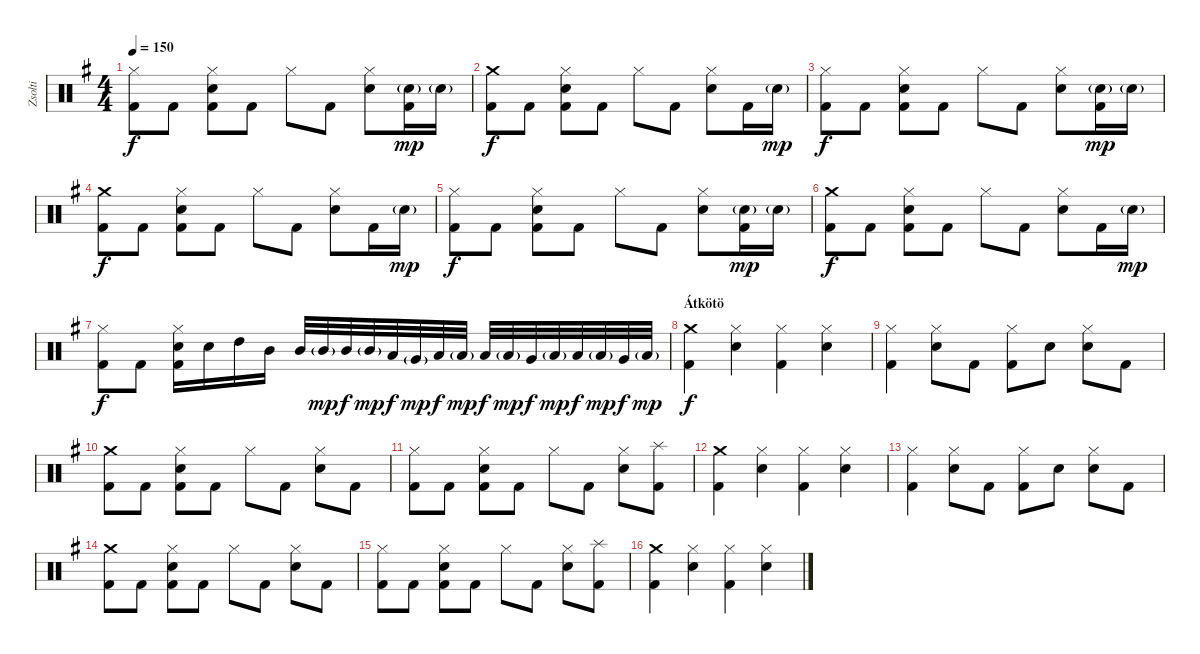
\track ("Zsolti" "Zsolti") {instrument percussion}
\staff {score}
\articulation defaults
\ts (4 4)
\tempo 150
\clef neutral
\ks eminor
("Hi-Hat (closed)" "Kick (hit) 2").8{dy f} "Kick (hit) 2".8 ("Hi-Hat (closed)" "Snare (hit) 2" "Kick (hit) 2").8 "Kick (hit) 2".8 "Hi-Hat (closed)".8 "Kick (hit) 2".8 ("Hi-Hat (closed)" "Snare (hit) 2").8 ("Snare (hit) 2"{g} "Kick (hit) 2").16{dy mp} "Snare (hit) 2"{g}.16 |
("Crash medium (hit)" "Kick (hit) 2").8{dy f} "Kick (hit) 2".8 ("Hi-Hat (closed)" "Snare (hit) 2" "Kick (hit) 2").8 "Kick (hit) 2".8 "Hi-Hat (closed)".8 "Kick (hit) 2".8 ("Hi-Hat (closed)" "Snare (hit) 2").8 "Kick (hit) 2".16 "Snare (hit) 2"{g}.16{dy mp} |
("Hi-Hat (closed)" "Kick (hit) 2").8{dy f} "Kick (hit) 2".8 ("Hi-Hat (closed)" "Snare (hit) 2" "Kick (hit) 2").8 "Kick (hit) 2".8 "Hi-Hat (closed)".8 "Kick (hit) 2".8 ("Hi-Hat (closed)" "Snare (hit) 2").8 ("Snare (hit) 2"{g} "Kick (hit) 2").16{dy mp} "Snare (hit) 2"{g}.16 |
("Crash medium (hit)" "Kick (hit) 2").8{dy f} "Kick (hit) 2".8 ("Hi-Hat (closed)" "Snare (hit) 2" "Kick (hit) 2").8 "Kick (hit) 2".8 "Hi-Hat (closed)".8 "Kick (hit) 2".8 ("Hi-Hat (closed)" "Snare (hit) 2").8 "Kick (hit) 2".16 "Snare (hit) 2"{g}.16{dy mp} |
("Hi-Hat (closed)" "Kick (hit) 2").8{dy f} "Kick (hit) 2".8 ("Hi-Hat (closed)" "Snare (hit) 2" "Kick (hit) 2").8 "Kick (hit) 2".8 "Hi-Hat (closed)".8 "Kick (hit) 2".8 ("Hi-Hat (closed)" "Snare (hit) 2").8 ("Snare (hit) 2"{g} "Kick (hit) 2").16{dy mp} "Snare (hit) 2"{g}.16 |
("Crash medium (hit)" "Kick (hit) 2").8{dy f} "Kick (hit) 2".8 ("Hi-Hat (closed)" "Snare (hit) 2" "Kick (hit) 2").8 "Kick (hit) 2".8 "Hi-Hat (closed)".8 "Kick (hit) 2".8 ("Hi-Hat (closed)" "Snare (hit) 2").8 "Kick (hit) 2".16 "Snare (hit) 2"{g}.16{dy mp} |
("Hi-Hat (closed)" "Kick (hit) 2").8{dy f} "Kick (hit) 2".8 ("Hi-Hat (closed)" "Snare (hit) 2" "Kick (hit) 2").16 "Snare (hit) 2".16 "High Tom (hit)".16 "Mid Tom (hit)".16 "Mid Tom (hit)".32 "Mid Tom (hit)"{g}.32{dy mp} "Mid Tom (hit)".32{dy f} "Mid Tom (hit)"{g}.32{dy mp} "Low Tom (hit)".32{dy f} "Very Low Tom (hit)"{g}.32{dy mp} "Low Tom (hit)".32{dy f} "Low Tom (hit)"{g}.32{dy mp} "Low Tom (hit)".32{dy f} "Low Tom (hit)"{g}.32{dy mp} "Very Low Tom (hit)".32{dy f} "Low Floor Tom (hit)"{g}.32{dy mp} "Low Tom (hit)".32{dy f} "Low Tom (hit)"{g}.32{dy mp} "Very Low Tom (hit)".32{dy f} "Low Floor Tom (hit)"{g}.32{dy mp} |
\section ("" "Átkötö")
("Crash medium (hit)" "Kick (hit) 2").4{dy f} ("Hi-Hat (closed)" "Snare (hit) 2").4 ("Hi-Hat (closed)" "Kick (hit) 2").4 ("Hi-Hat (closed)" "Snare (hit) 2").4 |
("Hi-Hat (closed)" "Kick (hit) 2").4 ("Hi-Hat (closed)" "Snare (hit) 2").8 "Kick (hit) 2".8 ("Hi-Hat (closed)" "Kick (hit) 2").8 "Snare (hit) 2".8 ("Hi-Hat (closed)" "Snare (hit) 2").8 "Kick (hit) 2".8 |
("Crash medium (hit)" "Kick (hit) 2").8 "Kick (hit) 2".8 ("Hi-Hat (closed)" "Snare (hit) 2" "Kick (hit) 2").8 "Kick (hit) 2".8 "Hi-Hat (closed)".8 "Kick (hit) 2".8 ("Hi-Hat (closed)" "Snare (hit) 2").8 "Kick (hit) 2".8 |
("Hi-Hat (closed)" "Kick (hit) 2").8 "Kick (hit) 2".8 ("Hi-Hat (closed)" "Snare (hit) 2" "Kick (hit) 2").8 "Kick (hit) 2".8 "Hi-Hat (closed)".8 "Kick (hit) 2".8 ("Hi-Hat (closed)" "Snare (hit) 2").8 ("Splash (hit)" "Kick (hit) 2").8 |
("Crash medium (hit)" "Kick (hit) 2").4 ("Hi-Hat (closed)" "Snare (hit) 2").4 ("Hi-Hat (closed)" "Kick (hit) 2").4 ("Hi-Hat (closed)" "Snare (hit) 2").4 |
("Hi-Hat (closed)" "Kick (hit) 2").4 ("Hi-Hat (closed)" "Snare (hit) 2").8 "Kick (hit) 2".8 ("Hi-Hat (closed)" "Kick (hit) 2").8 "Snare (hit) 2".8 ("Hi-Hat (closed)" "Snare (hit) 2").8 "Kick (hit) 2".8 |
("Crash medium (hit)" "Kick (hit) 2").8 "Kick (hit) 2".8 ("Hi-Hat (closed)" "Snare (hit) 2" "Kick (hit) 2").8 "Kick (hit) 2".8 "Hi-Hat (closed)".8 "Kick (hit) 2".8 ("Hi-Hat (closed)" "Snare (hit) 2").8 "Kick (hit) 2".8 |
("Hi-Hat (closed)" "Kick (hit) 2").8 "Kick (hit) 2".8 ("Hi-Hat (closed)" "Snare (hit) 2" "Kick (hit) 2").8 "Kick (hit) 2".8 "Hi-Hat (closed)".8 "Kick (hit) 2".8 ("Hi-Hat (closed)" "Snare (hit) 2").8 ("Splash (hit)" "Kick (hit) 2").8 |
("Crash medium (hit)" "Kick (hit) 2").4 ("Hi-Hat (closed)" "Snare (hit) 2").4 ("Hi-Hat (closed)" "Kick (hit) 2").4 ("Hi-Hat (closed)" "Snare (hit) 2").4
